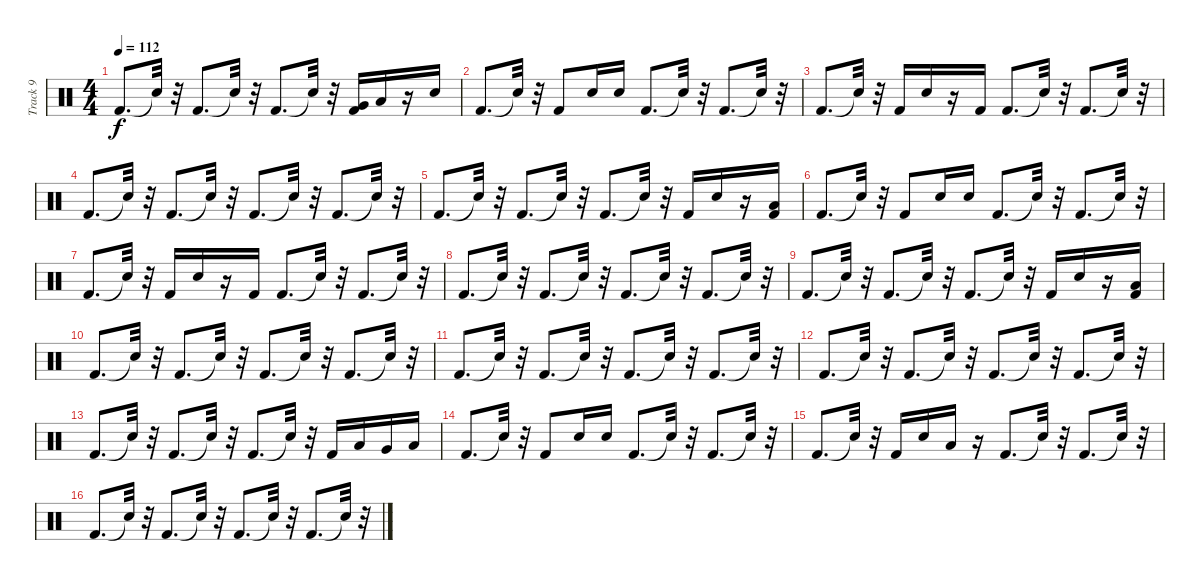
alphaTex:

\track ("Track 9" "Track 9") {instrument percussion}
\staff {score}
\articulation defaults
\ts (4 4)
\tempo 112
\clef neutral
\ks c "Kick (hit) 2".8{d dy f} "Snare (hit)"{t}.32
r.32 "Kick (hit) 2".8{d} "Snare (hit)"{t}.32 r.32 "Kick (hit) 2".8{d} "Snare (hit)"{t}.32 r.32 ("Kick (hit) 2" "Very Low Tom (hit)").16 "Low Floor Tom (hit)".16 r.16 "Snare (hit) 2".16 |
"Kick (hit) 2".8{d} "Snare (hit)"{t}.32 r.32 "Kick (hit) 2".8 "Snare (hit) 2".16 "Snare (hit) 2".16 "Kick (hit) 2".8{d} "Snare (hit)"{t}.32 r.32 "Kick (hit) 2".8{d} "Snare (hit)"{t}.32 r.32 |
"Kick (hit) 2".8{d} "Snare (hit)"{t}.32 r.32 "Kick (hit) 2".16 "Snare (hit) 2".16 r.16 "Kick (hit) 2".16 "Kick (hit) 2".8{d} "Snare (hit)"{t}.32 r.32 "Kick (hit) 2".8{d} "Snare (hit)"{t}.32 r.32 |
"Kick (hit) 2".8{d} "Snare (hit)"{t}.32 r.32 "Kick (hit) 2".8{d} "Snare (hit)"{t}.32 r.32 "Kick (hit) 2".8{d} "Snare (hit)"{t}.32 r.32 "Kick (hit) 2".8{d} "Snare (hit)"{t}.32 r.32 |
"Kick (hit) 2".8{d} "Snare (hit)"{t}.32 r.32 "Kick (hit) 2".8{d} "Snare (hit)"{t}.32 r.32 "Kick (hit) 2".8{d} "Snare (hit)"{t}.32 r.32 "Kick (hit) 2".16 "Snare (hit) 2".16 r.16 ("Kick (hit) 2" "Low Floor Tom (hit)").16 |
"Kick (hit) 2".8{d} "Snare (hit)"{t}.32 r.32 "Kick (hit) 2".8 "Snare (hit) 2".16 "Snare (hit) 2".16 "Kick (hit) 2".8{d} "Snare (hit)"{t}.32 r.32 "Kick (hit) 2".8{d} "Snare (hit)"{t}.32 r.32 |
"Kick (hit) 2".8{d} "Snare (hit)"{t}.32 r.32 "Kick (hit) 2".16 "Snare (hit) 2".16 r.16 "Kick (hit) 2".16 "Kick (hit) 2".8{d} "Snare (hit)"{t}.32 r.32 "Kick (hit) 2".8{d} "Snare (hit)"{t}.32 r.32 |
"Kick (hit) 2".8{d} "Snare (hit)"{t}.32 r.32 "Kick (hit) 2".8{d} "Snare (hit)"{t}.32 r.32 "Kick (hit) 2".8{d} "Snare (hit)"{t}.32 r.32 "Kick (hit) 2".8{d} "Snare (hit)"{t}.32 r.32 |
"Kick (hit) 2".8{d} "Snare (hit)"{t}.32 r.32 "Kick (hit) 2".8{d} "Snare (hit)"{t}.32 r.32 "Kick (hit) 2".8{d} "Snare (hit)"{t}.32 r.32 "Kick (hit) 2".16 "Snare (hit) 2".16 r.16 ("Kick (hit) 2" "Low Floor Tom (hit)").16 |
"Kick (hit) 2".8{d} "Snare (hit)"{t}.32 r.32 "Kick (hit) 2".8{d} "Snare (hit)"{t}.32 r.32 "Kick (hit) 2".8{d} "Snare (hit)"{t}.32 r.32 "Kick (hit) 2".8{d} "Snare (hit)"{t}.32 r.32 |
"Kick (hit) 2".8{d} "Snare (hit)"{t}.32 r.32 "Kick (hit) 2".8{d} "Snare (hit)"{t}.32 r.32 "Kick (hit) 2".8{d} "Snare (hit)"{t}.32 r.32 "Kick (hit) 2".8{d} "Snare (hit)"{t}.32 r.32 |
"Kick (hit) 2".8{d} "Snare (hit)"{t}.32 r.32 "Kick (hit) 2".8{d} "Snare (hit)"{t}.32 r.32 "Kick (hit) 2".8{d} "Snare (hit)"{t}.32 r.32 "Kick (hit) 2".8{d} "Snare (hit)"{t}.32 r.32 |
"Kick (hit) 2".8{d} "Snare (hit)"{t}.32 r.32 "Kick (hit) 2".8{d} "Snare (hit)"{t}.32 r.32 "Kick (hit) 2".8{d} "Snare (hit)"{t}.32 r.32 "Kick (hit) 2".16 "Low Tom (hit)".16 "Very Low Tom (hit)".16 "Low Floor Tom (hit)".16 |
"Kick (hit) 2".8{d} "Snare (hit)"{t}.32 r.32 "Kick (hit) 2".8 "Snare (hit) 2".16 "Snare (hit) 2".16 "Kick (hit) 2".8{d} "Snare (hit)"{t}.32 r.32 "Kick (hit) 2".8{d} "Snare (hit)"{t}.32 r.32 |
"Kick (hit) 2".8{d} "Snare (hit)"{t}.32 r.32 "Kick (hit) 2".16 "Snare (hit) 2".16 "Low Floor Tom (hit)".16 r.16 "Kick (hit) 2".8{d} "Snare (hit)"{t}.32 r.32 "Kick (hit) 2".8{d} "Snare (hit)"{t}.32 r.32 |
"Kick (hit) 2".8{d} "Snare (hit)"{t}.32 r.32 "Kick (hit) 2".8{d} "Snare (hit)"{t}.32 r.32 "Kick (hit) 2".8{d} "Snare (hit)"{t}.32 r.32 "Kick (hit) 2".8{d} "Snare (hit)"{t}.32 r.32
